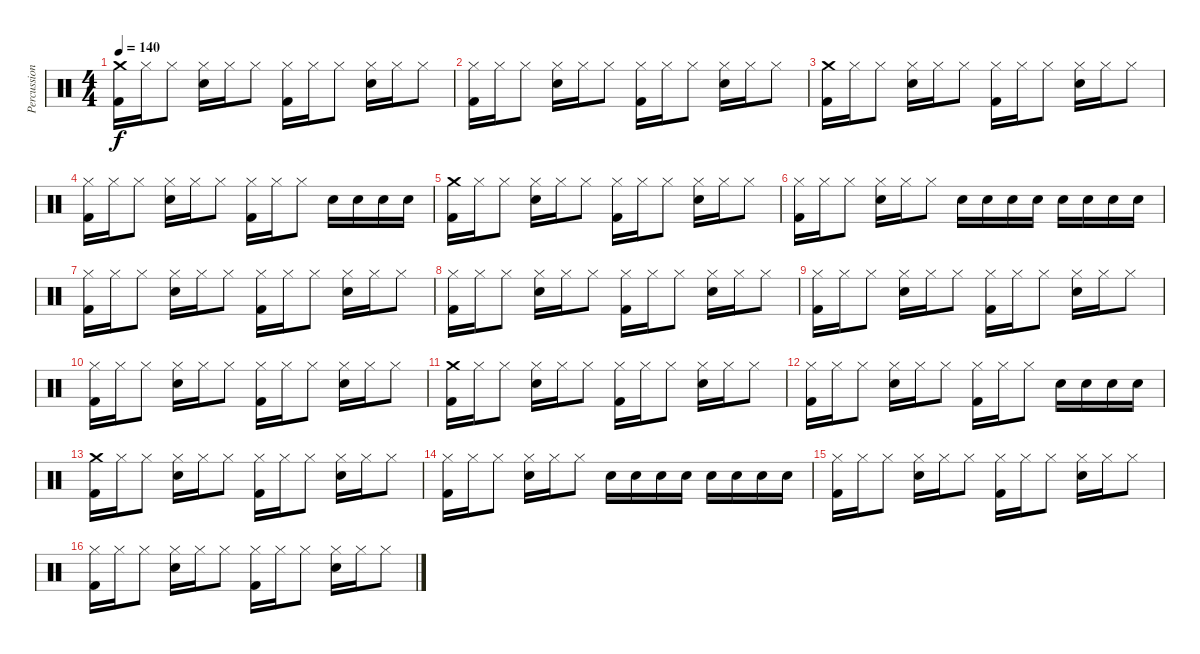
\track ("Percussion" "Percussion") {instrument percussion}
\staff {score}
\articulation defaults
\ts (4 4)
\tempo 140
\clef neutral
\ks c
("Crash medium (hit)" "Kick (hit) 2").16{dy f} "Hi-Hat (closed)".16 "Hi-Hat (closed)".8 ("Hi-Hat (closed)" "Electric Snare (hit)").16 "Hi-Hat (closed)".16 "Hi-Hat (closed)".8 ("Hi-Hat (closed)" "Kick (hit) 2").16 "Hi-Hat (closed)".16 "Hi-Hat (closed)".8 ("Hi-Hat (closed)" "Electric Snare (hit)").16 "Hi-Hat (closed)".16 "Hi-Hat (closed)".8 |
("Hi-Hat (closed)" "Kick (hit) 2").16 "Hi-Hat (closed)".16 "Hi-Hat (closed)".8 ("Hi-Hat (closed)" "Electric Snare (hit)").16 "Hi-Hat (closed)".16 "Hi-Hat (closed)".8 ("Hi-Hat (closed)" "Kick (hit) 2").16 "Hi-Hat (closed)".16 "Hi-Hat (closed)".8 ("Hi-Hat (closed)" "Electric Snare (hit)").16 "Hi-Hat (closed)".16 "Hi-Hat (closed)".8 |
("Crash medium (hit)" "Kick (hit) 2").16 "Hi-Hat (closed)".16 "Hi-Hat (closed)".8 ("Hi-Hat (closed)" "Electric Snare (hit)").16 "Hi-Hat (closed)".16 "Hi-Hat (closed)".8 ("Hi-Hat (closed)" "Kick (hit) 2").16 "Hi-Hat (closed)".16 "Hi-Hat (closed)".8 ("Hi-Hat (closed)" "Electric Snare (hit)").16 "Hi-Hat (closed)".16 "Hi-Hat (closed)".8 |
("Hi-Hat (closed)" "Kick (hit) 2").16 "Hi-Hat (closed)".16 "Hi-Hat (closed)".8 ("Hi-Hat (closed)" "Electric Snare (hit)").16 "Hi-Hat (closed)".16 "Hi-Hat (closed)".8 ("Hi-Hat (closed)" "Kick (hit) 2").16 "Hi-Hat (closed)".16 "Hi-Hat (closed)".8 "Electric Snare (hit)".16 "Electric Snare (hit)".16 "Electric Snare (hit)".16 "Electric Snare (hit)".16 |
("Crash medium (hit)" "Kick (hit) 2").16 "Hi-Hat (closed)".16 "Hi-Hat (closed)".8 ("Hi-Hat (closed)" "Electric Snare (hit)").16 "Hi-Hat (closed)".16 "Hi-Hat (closed)".8 ("Hi-Hat (closed)" "Kick (hit) 2").16 "Hi-Hat (closed)".16 "Hi-Hat (closed)".8 ("Hi-Hat (closed)" "Electric Snare (hit)").16 "Hi-Hat (closed)".16 "Hi-Hat (closed)".8 |
("Hi-Hat (closed)" "Kick (hit) 2").16 "Hi-Hat (closed)".16 "Hi-Hat (closed)".8 ("Hi-Hat (closed)" "Electric Snare (hit)").16 "Hi-Hat (closed)".16 "Hi-Hat (closed)".8 "Electric Snare (hit)".16 "Electric Snare (hit)".16 "Electric Snare (hit)".16 "Electric Snare (hit)".16 "Electric Snare (hit)".16 "Electric Snare (hit)".16 "Electric Snare (hit)".16 "Electric Snare (hit)".16 |
("Hi-Hat (closed)" "Kick (hit) 2").16 "Hi-Hat (closed)".16 "Hi-Hat (closed)".8 ("Hi-Hat (closed)" "Electric Snare (hit)").16 "Hi-Hat (closed)".16 "Hi-Hat (closed)".8 ("Hi-Hat (closed)" "Kick (hit) 2").16 "Hi-Hat (closed)".16 "Hi-Hat (closed)".8 ("Hi-Hat (closed)" "Electric Snare (hit)").16 "Hi-Hat (closed)".16 "Hi-Hat (closed)".8 |
("Hi-Hat (closed)" "Kick (hit) 2").16 "Hi-Hat (closed)".16 "Hi-Hat (closed)".8 ("Hi-Hat (closed)" "Electric Snare (hit)").16 "Hi-Hat (closed)".16 "Hi-Hat (closed)".8 ("Hi-Hat (closed)" "Kick (hit) 2").16 "Hi-Hat (closed)".16 "Hi-Hat (closed)".8 ("Hi-Hat (closed)" "Electric Snare (hit)").16 "Hi-Hat (closed)".16 "Hi-Hat (closed)".8 |
("Hi-Hat (closed)" "Kick (hit) 2").16 "Hi-Hat (closed)".16 "Hi-Hat (closed)".8 ("Hi-Hat (closed)" "Electric Snare (hit)").16 "Hi-Hat (closed)".16 "Hi-Hat (closed)".8 ("Hi-Hat (closed)" "Kick (hit) 2").16 "Hi-Hat (closed)".16 "Hi-Hat (closed)".8 ("Hi-Hat (closed)" "Electric Snare (hit)").16 "Hi-Hat (closed)".16 "Hi-Hat (closed)".8 |
("Hi-Hat (closed)" "Kick (hit) 2").16 "Hi-Hat (closed)".16 "Hi-Hat (closed)".8 ("Hi-Hat (closed)" "Electric Snare (hit)").16 "Hi-Hat (closed)".16 "Hi-Hat (closed)".8 ("Hi-Hat (closed)" "Kick (hit) 2").16 "Hi-Hat (closed)".16 "Hi-Hat (closed)".8 ("Hi-Hat (closed)" "Electric Snare (hit)").16 "Hi-Hat (closed)".16 "Hi-Hat (closed)".8 |
("Crash medium (hit)" "Kick (hit) 2").16 "Hi-Hat (closed)".16 "Hi-Hat (closed)".8 ("Hi-Hat (closed)" "Electric Snare (hit)").16 "Hi-Hat (closed)".16 "Hi-Hat (closed)".8 ("Hi-Hat (closed)" "Kick (hit) 2").16 "Hi-Hat (closed)".16 "Hi-Hat (closed)".8 ("Hi-Hat (closed)" "Electric Snare (hit)").16 "Hi-Hat (closed)".16 "Hi-Hat (closed)".8 |
("Hi-Hat (closed)" "Kick (hit) 2").16 "Hi-Hat (closed)".16 "Hi-Hat (closed)".8 ("Hi-Hat (closed)" "Electric Snare (hit)").16 "Hi-Hat (closed)".16 "Hi-Hat (closed)".8 ("Hi-Hat (closed)" "Kick (hit) 2").16 "Hi-Hat (closed)".16 "Hi-Hat (closed)".8 "Electric Snare (hit)".16 "Electric Snare (hit)".16 "Electric Snare (hit)".16 "Electric Snare (hit)".16 |
("Crash medium (hit)" "Kick (hit) 2").16 "Hi-Hat (closed)".16 "Hi-Hat (closed)".8 ("Hi-Hat (closed)" "Electric Snare (hit)").16 "Hi-Hat (closed)".16 "Hi-Hat (closed)".8 ("Hi-Hat (closed)" "Kick (hit) 2").16 "Hi-Hat (closed)".16 "Hi-Hat (closed)".8 ("Hi-Hat (closed)" "Electric Snare (hit)").16 "Hi-Hat (closed)".16 "Hi-Hat (closed)".8 |
("Hi-Hat (closed)" "Kick (hit) 2").16 "Hi-Hat (closed)".16 "Hi-Hat (closed)".8 ("Hi-Hat (closed)" "Electric Snare (hit)").16 "Hi-Hat (closed)".16 "Hi-Hat (closed)".8 "Electric Snare (hit)".16 "Electric Snare (hit)".16 "Electric Snare (hit)".16 "Electric Snare (hit)".16 "Electric Snare (hit)".16 "Electric Snare (hit)".16 "Electric Snare (hit)".16 "Electric Snare (hit)".16 |
("Hi-Hat (closed)" "Kick (hit) 2").16 "Hi-Hat (closed)".16 "Hi-Hat (closed)".8 ("Hi-Hat (closed)" "Electric Snare (hit)").16 "Hi-Hat (closed)".16 "Hi-Hat (closed)".8 ("Hi-Hat (closed)" "Kick (hit) 2").16 "Hi-Hat (closed)".16 "Hi-Hat (closed)".8 ("Hi-Hat (closed)" "Electric Snare (hit)").16 "Hi-Hat (closed)".16 "Hi-Hat (closed)".8 |
("Hi-Hat (closed)" "Kick (hit) 2").16 "Hi-Hat (closed)".16 "Hi-Hat (closed)".8 ("Hi-Hat (closed)" "Electric Snare (hit)").16 "Hi-Hat (closed)".16 "Hi-Hat (closed)".8 ("Hi-Hat (closed)" "Kick (hit) 2").16 "Hi-Hat (closed)".16 "Hi-Hat (closed)".8 ("Hi-Hat (closed)" "Electric Snare (hit)").16 "Hi-Hat (closed)".16 "Hi-Hat (closed)".8
